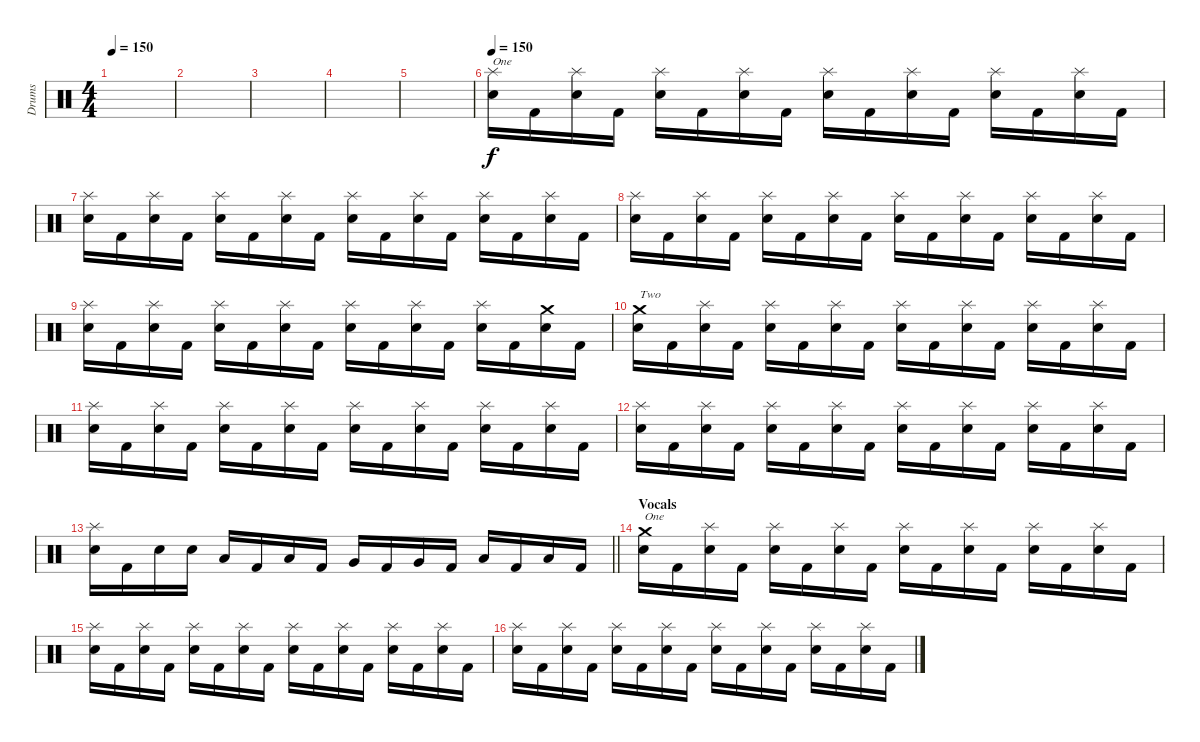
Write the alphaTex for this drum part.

\track ("Drums" "Drums") {instrument percussion}
\staff {score}
\articulation defaults
\ts (4 4)
\tempo 150
\tempo 60
\tempo 150
\clef neutral
\ks c
|
|
|
|
|
\tempo 150
("Splash (hit)" "Snare (hit) 2").16{txt "One"} "Kick (hit) 2".16 ("Splash (hit)" "Snare (hit) 2").16 "Kick (hit) 2".16 ("Splash (hit)" "Snare (hit) 2").16 "Kick (hit) 2".16 ("Splash (hit)" "Snare (hit) 2").16 "Kick (hit) 2".16 ("Splash (hit)" "Snare (hit) 2").16 "Kick (hit) 2".16 ("Splash (hit)" "Snare (hit) 2").16 "Kick (hit) 2".16 ("Splash (hit)" "Snare (hit) 2").16 "Kick (hit) 2".16 ("Splash (hit)" "Snare (hit) 2").16 "Kick (hit) 2".16 |
("Splash (hit)" "Snare (hit) 2").16 "Kick (hit) 2".16 ("Splash (hit)" "Snare (hit) 2").16 "Kick (hit) 2".16 ("Splash (hit)" "Snare (hit) 2").16 "Kick (hit) 2".16 ("Splash (hit)" "Snare (hit) 2").16 "Kick (hit) 2".16 ("Splash (hit)" "Snare (hit) 2").16 "Kick (hit) 2".16 ("Splash (hit)" "Snare (hit) 2").16 "Kick (hit) 2".16 ("Splash (hit)" "Snare (hit) 2").16 "Kick (hit) 2".16 ("Splash (hit)" "Snare (hit) 2").16 "Kick (hit) 2".16 |
("Splash (hit)" "Snare (hit) 2").16 "Kick (hit) 2".16 ("Splash (hit)" "Snare (hit) 2").16 "Kick (hit) 2".16 ("Splash (hit)" "Snare (hit) 2").16 "Kick (hit) 2".16 ("Splash (hit)" "Snare (hit) 2").16 "Kick (hit) 2".16 ("Splash (hit)" "Snare (hit) 2").16 "Kick (hit) 2".16 ("Splash (hit)" "Snare (hit) 2").16 "Kick (hit) 2".16 ("Splash (hit)" "Snare (hit) 2").16 "Kick (hit) 2".16 ("Splash (hit)" "Snare (hit) 2").16 "Kick (hit) 2".16 |
("Splash (hit)" "Snare (hit) 2").16 "Kick (hit) 2".16 ("Splash (hit)" "Snare (hit) 2").16 "Kick (hit) 2".16 ("Splash (hit)" "Snare (hit) 2").16 "Kick (hit) 2".16 ("Splash (hit)" "Snare (hit) 2").16 "Kick (hit) 2".16 ("Splash (hit)" "Snare (hit) 2").16 "Kick (hit) 2".16 ("Splash (hit)" "Snare (hit) 2").16 "Kick (hit) 2".16 ("Splash (hit)" "Snare (hit) 2").16 "Kick (hit) 2".16 ("Crash medium (hit)" "Snare (hit) 2").16 "Kick (hit) 2".16 |
("Crash medium (hit)" "Snare (hit) 2").16{txt "Two"} "Kick (hit) 2".16 ("Splash (hit)" "Snare (hit) 2").16 "Kick (hit) 2".16 ("Splash (hit)" "Snare (hit) 2").16 "Kick (hit) 2".16 ("Splash (hit)" "Snare (hit) 2").16 "Kick (hit) 2".16 ("Splash (hit)" "Snare (hit) 2").16 "Kick (hit) 2".16 ("Splash (hit)" "Snare (hit) 2").16 "Kick (hit) 2".16 ("Splash (hit)" "Snare (hit) 2").16 "Kick (hit) 2".16 ("Splash (hit)" "Snare (hit) 2").16 "Kick (hit) 2".16 |
("Splash (hit)" "Snare (hit) 2").16 "Kick (hit) 2".16 ("Splash (hit)" "Snare (hit) 2").16 "Kick (hit) 2".16 ("Splash (hit)" "Snare (hit) 2").16 "Kick (hit) 2".16 ("Splash (hit)" "Snare (hit) 2").16 "Kick (hit) 2".16 ("Splash (hit)" "Snare (hit) 2").16 "Kick (hit) 2".16 ("Splash (hit)" "Snare (hit) 2").16 "Kick (hit) 2".16 ("Splash (hit)" "Snare (hit) 2").16 "Kick (hit) 2".16 ("Splash (hit)" "Snare (hit) 2").16 "Kick (hit) 2".16 |
("Splash (hit)" "Snare (hit) 2").16 "Kick (hit) 2".16 ("Splash (hit)" "Snare (hit) 2").16 "Kick (hit) 2".16 ("Splash (hit)" "Snare (hit) 2").16 "Kick (hit) 2".16 ("Splash (hit)" "Snare (hit) 2").16 "Kick (hit) 2".16 ("Splash (hit)" "Snare (hit) 2").16 "Kick (hit) 2".16 ("Splash (hit)" "Snare (hit) 2").16 "Kick (hit) 2".16 ("Splash (hit)" "Snare (hit) 2").16 "Kick (hit) 2".16 ("Splash (hit)" "Snare (hit) 2").16 "Kick (hit) 2".16 |
\barLineRight lightlight
("Splash (hit)" "Snare (hit) 2").16 "Kick (hit) 2".16 "Snare (hit) 2".16 "Snare (hit) 2".16 "Low Tom (hit)".16 "Kick (hit) 2".16 "Low Tom (hit)".16 "Kick (hit) 2".16 "Very Low Tom (hit)".16 "Kick (hit) 2".16 "Very Low Tom (hit)".16 "Kick (hit) 2".16 "Low Floor Tom (hit)".16 "Kick (hit) 2".16 "Low Floor Tom (hit)".16 "Kick (hit) 2".16 |
\section ("" "Vocals")
("Crash medium (hit)" "Snare (hit) 2").16{txt "One"} "Kick (hit) 2".16 ("Splash (hit)" "Snare (hit) 2").16 "Kick (hit) 2".16 ("Splash (hit)" "Snare (hit) 2").16 "Kick (hit) 2".16 ("Splash (hit)" "Snare (hit) 2").16 "Kick (hit) 2".16 ("Splash (hit)" "Snare (hit) 2").16 "Kick (hit) 2".16 ("Splash (hit)" "Snare (hit) 2").16 "Kick (hit) 2".16 ("Splash (hit)" "Snare (hit) 2").16 "Kick (hit) 2".16 ("Splash (hit)" "Snare (hit) 2").16 "Kick (hit) 2".16 |
("Splash (hit)" "Snare (hit) 2").16 "Kick (hit) 2".16 ("Splash (hit)" "Snare (hit) 2").16 "Kick (hit) 2".16 ("Splash (hit)" "Snare (hit) 2").16 "Kick (hit) 2".16 ("Splash (hit)" "Snare (hit) 2").16 "Kick (hit) 2".16 ("Splash (hit)" "Snare (hit) 2").16 "Kick (hit) 2".16 ("Splash (hit)" "Snare (hit) 2").16 "Kick (hit) 2".16 ("Splash (hit)" "Snare (hit) 2").16 "Kick (hit) 2".16 ("Splash (hit)" "Snare (hit) 2").16 "Kick (hit) 2".16 |
("Splash (hit)" "Snare (hit) 2").16 "Kick (hit) 2".16 ("Splash (hit)" "Snare (hit) 2").16 "Kick (hit) 2".16 ("Splash (hit)" "Snare (hit) 2").16 "Kick (hit) 2".16 ("Splash (hit)" "Snare (hit) 2").16 "Kick (hit) 2".16 ("Splash (hit)" "Snare (hit) 2").16 "Kick (hit) 2".16 ("Splash (hit)" "Snare (hit) 2").16 "Kick (hit) 2".16 ("Splash (hit)" "Snare (hit) 2").16 "Kick (hit) 2".16 ("Splash (hit)" "Snare (hit) 2").16 "Kick (hit) 2".16
